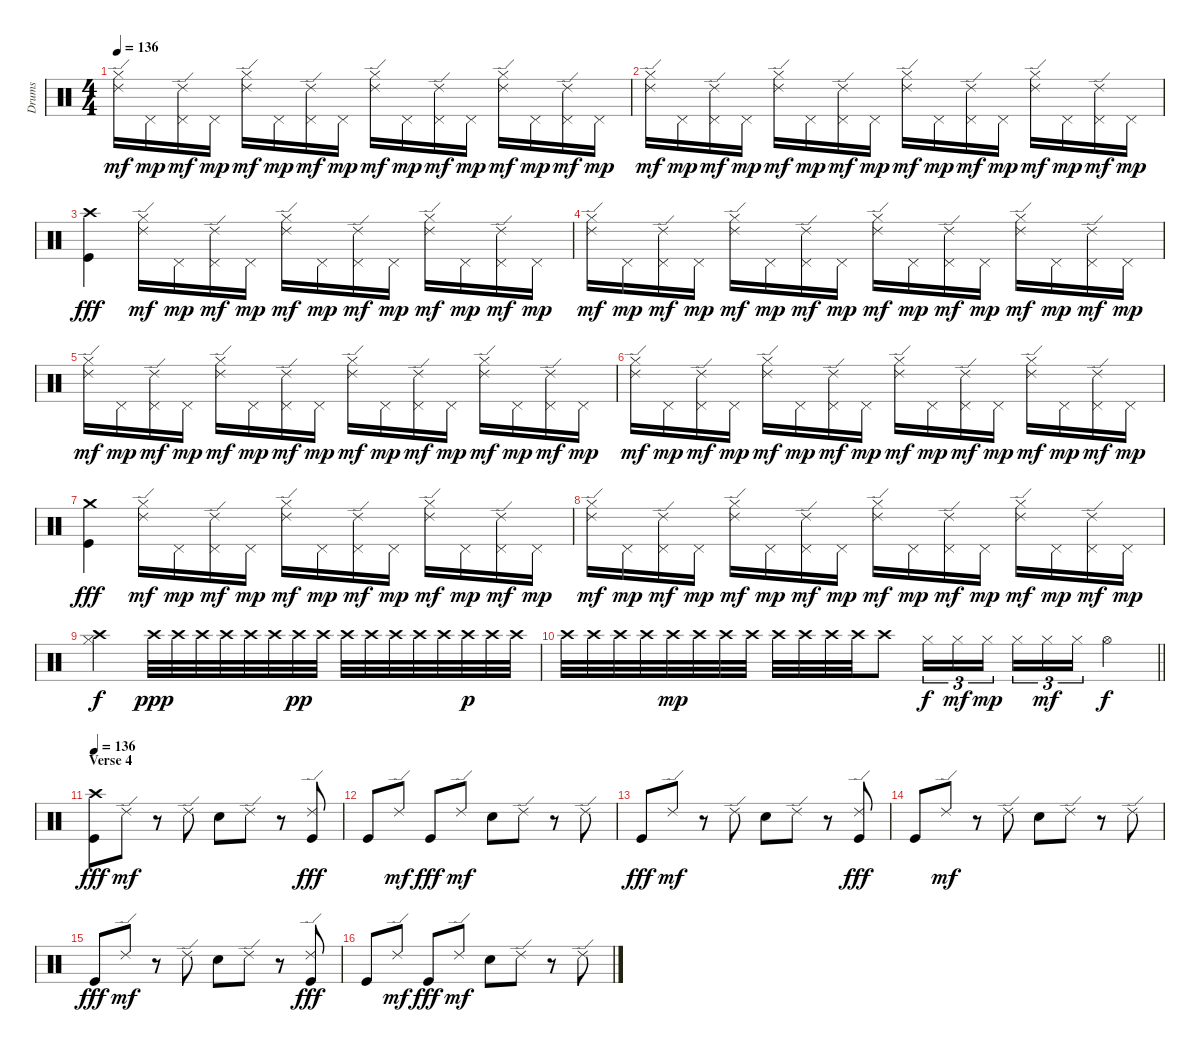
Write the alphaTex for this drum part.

\track ("Drums" "Drums") {instrument percussion}
\staff {score}
\articulation defaults
\ts (4 4)
\tempo 136
\clef neutral
\ks c
("Ride (edge) 2" "Hi-Hat (closed)").16{dy mf} "Pedal Hi-Hat (hit)".16{dy mp} ("Ride (edge) 2" "Pedal Hi-Hat (hit)").16{dy mf} "Pedal Hi-Hat (hit)".16{dy mp} ("Ride (edge) 2" "Hi-Hat (closed)").16{dy mf} "Pedal Hi-Hat (hit)".16{dy mp} ("Ride (edge) 2" "Pedal Hi-Hat (hit)").16{dy mf} "Pedal Hi-Hat (hit)".16{dy mp} ("Ride (edge) 2" "Hi-Hat (closed)").16{dy mf} "Pedal Hi-Hat (hit)".16{dy mp} ("Ride (edge) 2" "Pedal Hi-Hat (hit)").16{dy mf} "Pedal Hi-Hat (hit)".16{dy mp} ("Ride (edge) 2" "Hi-Hat (closed)").16{dy mf} "Pedal Hi-Hat (hit)".16{dy mp} ("Ride (edge) 2" "Pedal Hi-Hat (hit)").16{dy mf} "Pedal Hi-Hat (hit)".16{dy mp} |
("Ride (edge) 2" "Hi-Hat (closed)").16{dy mf} "Pedal Hi-Hat (hit)".16{dy mp} ("Ride (edge) 2" "Pedal Hi-Hat (hit)").16{dy mf} "Pedal Hi-Hat (hit)".16{dy mp} ("Ride (edge) 2" "Hi-Hat (closed)").16{dy mf} "Pedal Hi-Hat (hit)".16{dy mp} ("Ride (edge) 2" "Pedal Hi-Hat (hit)").16{dy mf} "Pedal Hi-Hat (hit)".16{dy mp} ("Ride (edge) 2" "Hi-Hat (closed)").16{dy mf} "Pedal Hi-Hat (hit)".16{dy mp} ("Ride (edge) 2" "Pedal Hi-Hat (hit)").16{dy mf} "Pedal Hi-Hat (hit)".16{dy mp} ("Ride (edge) 2" "Hi-Hat (closed)").16{dy mf} "Pedal Hi-Hat (hit)".16{dy mp} ("Ride (edge) 2" "Pedal Hi-Hat (hit)").16{dy mf} "Pedal Hi-Hat (hit)".16{dy mp} |
("Crash high (hit)" "Kick (hit)").4{dy fff} ("Ride (edge) 2" "Hi-Hat (closed)").16{dy mf} "Pedal Hi-Hat (hit)".16{dy mp} ("Ride (edge) 2" "Pedal Hi-Hat (hit)").16{dy mf} "Pedal Hi-Hat (hit)".16{dy mp} ("Ride (edge) 2" "Hi-Hat (closed)").16{dy mf} "Pedal Hi-Hat (hit)".16{dy mp} ("Ride (edge) 2" "Pedal Hi-Hat (hit)").16{dy mf} "Pedal Hi-Hat (hit)".16{dy mp} ("Ride (edge) 2" "Hi-Hat (closed)").16{dy mf} "Pedal Hi-Hat (hit)".16{dy mp} ("Ride (edge) 2" "Pedal Hi-Hat (hit)").16{dy mf} "Pedal Hi-Hat (hit)".16{dy mp} |
("Ride (edge) 2" "Hi-Hat (closed)").16{dy mf} "Pedal Hi-Hat (hit)".16{dy mp} ("Ride (edge) 2" "Pedal Hi-Hat (hit)").16{dy mf} "Pedal Hi-Hat (hit)".16{dy mp} ("Ride (edge) 2" "Hi-Hat (closed)").16{dy mf} "Pedal Hi-Hat (hit)".16{dy mp} ("Ride (edge) 2" "Pedal Hi-Hat (hit)").16{dy mf} "Pedal Hi-Hat (hit)".16{dy mp} ("Ride (edge) 2" "Hi-Hat (closed)").16{dy mf} "Pedal Hi-Hat (hit)".16{dy mp} ("Ride (edge) 2" "Pedal Hi-Hat (hit)").16{dy mf} "Pedal Hi-Hat (hit)".16{dy mp} ("Ride (edge) 2" "Hi-Hat (closed)").16{dy mf} "Pedal Hi-Hat (hit)".16{dy mp} ("Ride (edge) 2" "Pedal Hi-Hat (hit)").16{dy mf} "Pedal Hi-Hat (hit)".16{dy mp} |
("Ride (edge) 2" "Hi-Hat (closed)").16{dy mf} "Pedal Hi-Hat (hit)".16{dy mp} ("Ride (edge) 2" "Pedal Hi-Hat (hit)").16{dy mf} "Pedal Hi-Hat (hit)".16{dy mp} ("Ride (edge) 2" "Hi-Hat (closed)").16{dy mf} "Pedal Hi-Hat (hit)".16{dy mp} ("Ride (edge) 2" "Pedal Hi-Hat (hit)").16{dy mf} "Pedal Hi-Hat (hit)".16{dy mp} ("Ride (edge) 2" "Hi-Hat (closed)").16{dy mf} "Pedal Hi-Hat (hit)".16{dy mp} ("Ride (edge) 2" "Pedal Hi-Hat (hit)").16{dy mf} "Pedal Hi-Hat (hit)".16{dy mp} ("Ride (edge) 2" "Hi-Hat (closed)").16{dy mf} "Pedal Hi-Hat (hit)".16{dy mp} ("Ride (edge) 2" "Pedal Hi-Hat (hit)").16{dy mf} "Pedal Hi-Hat (hit)".16{dy mp} |
("Ride (edge) 2" "Hi-Hat (closed)").16{dy mf} "Pedal Hi-Hat (hit)".16{dy mp} ("Ride (edge) 2" "Pedal Hi-Hat (hit)").16{dy mf} "Pedal Hi-Hat (hit)".16{dy mp} ("Ride (edge) 2" "Hi-Hat (closed)").16{dy mf} "Pedal Hi-Hat (hit)".16{dy mp} ("Ride (edge) 2" "Pedal Hi-Hat (hit)").16{dy mf} "Pedal Hi-Hat (hit)".16{dy mp} ("Ride (edge) 2" "Hi-Hat (closed)").16{dy mf} "Pedal Hi-Hat (hit)".16{dy mp} ("Ride (edge) 2" "Pedal Hi-Hat (hit)").16{dy mf} "Pedal Hi-Hat (hit)".16{dy mp} ("Ride (edge) 2" "Hi-Hat (closed)").16{dy mf} "Pedal Hi-Hat (hit)".16{dy mp} ("Ride (edge) 2" "Pedal Hi-Hat (hit)").16{dy mf} "Pedal Hi-Hat (hit)".16{dy mp} |
("Crash medium (hit)" "Kick (hit)").4{dy fff} ("Ride (edge) 2" "Hi-Hat (closed)").16{dy mf} "Pedal Hi-Hat (hit)".16{dy mp} ("Ride (edge) 2" "Pedal Hi-Hat (hit)").16{dy mf} "Pedal Hi-Hat (hit)".16{dy mp} ("Ride (edge) 2" "Hi-Hat (closed)").16{dy mf} "Pedal Hi-Hat (hit)".16{dy mp} ("Ride (edge) 2" "Pedal Hi-Hat (hit)").16{dy mf} "Pedal Hi-Hat (hit)".16{dy mp} ("Ride (edge) 2" "Hi-Hat (closed)").16{dy mf} "Pedal Hi-Hat (hit)".16{dy mp} ("Ride (edge) 2" "Pedal Hi-Hat (hit)").16{dy mf} "Pedal Hi-Hat (hit)".16{dy mp} |
("Ride (edge) 2" "Hi-Hat (closed)").16{dy mf} "Pedal Hi-Hat (hit)".16{dy mp} ("Ride (edge) 2" "Pedal Hi-Hat (hit)").16{dy mf} "Pedal Hi-Hat (hit)".16{dy mp} ("Ride (edge) 2" "Hi-Hat (closed)").16{dy mf} "Pedal Hi-Hat (hit)".16{dy mp} ("Ride (edge) 2" "Pedal Hi-Hat (hit)").16{dy mf} "Pedal Hi-Hat (hit)".16{dy mp} ("Ride (edge) 2" "Hi-Hat (closed)").16{dy mf} "Pedal Hi-Hat (hit)".16{dy mp} ("Ride (edge) 2" "Pedal Hi-Hat (hit)").16{dy mf} "Pedal Hi-Hat (hit)".16{dy mp} ("Ride (edge) 2" "Hi-Hat (closed)").16{dy mf} "Pedal Hi-Hat (hit)".16{dy mp} ("Ride (edge) 2" "Pedal Hi-Hat (hit)").16{dy mf} "Pedal Hi-Hat (hit)".16{dy mp} |
("Crash high (hit)" "Hi-Hat (closed)").2{dy f} "Crash high (hit)".32{dy ppp} "Crash high (hit)".32 "Crash high (hit)".32 "Crash high (hit)".32 "Crash high (hit)".32 "Crash high (hit)".32 "Crash high (hit)".32{dy pp} "Crash high (hit)".32 "Crash high (hit)".32 "Crash high (hit)".32 "Crash high (hit)".32 "Crash high (hit)".32 "Crash high (hit)".32 "Crash high (hit)".32{dy p} "Crash high (hit)".32 "Crash high (hit)".32 |
\barLineRight lightlight "Crash high (hit)".32 "Crash high (hit)".32 "Crash high (hit)".32 "Crash high (hit)".32 "Crash high (hit)".32{dy mp} "Crash high (hit)".32 "Crash high (hit)".32 "Crash high (hit)".32 "Crash high (hit)".32 "Crash high (hit)".32 "Crash high (hit)".32 "Crash high (hit)".32 "Crash high (hit)".8 "Hi-Hat (closed)".16{tu (3 2) dy f} "Hi-Hat (closed)".16{tu (3 2) dy mf} "Hi-Hat (closed)".16{tu (3 2) dy mp beam splitsecondary} "Hi-Hat (closed)".16{tu (3 2)} "Hi-Hat (closed)".16{tu (3 2) dy mf} "Hi-Hat (closed)".16{tu (3 2)} "Hi-Hat (open)".4{dy f}
|
\section ("" "Verse 4")
\tempo 136
("Crash high (hit)" "Kick (hit)").8{dy fff} "Ride (edge) 2".8{dy mf} r.8 "Ride (edge) 2".8 "Electric Snare (hit)".8 "Ride (edge) 2".8 r.8 ("Ride (edge) 2" "Kick (hit)").8{dy fff} |
"Kick (hit)".8 "Ride (edge) 2".8{dy mf} "Kick (hit)".8{dy fff} "Ride (edge) 2".8{dy mf} "Electric Snare (hit)".8 "Ride (edge) 2".8 r.8 "Ride (edge) 2".8 |
"Kick (hit)".8{dy fff} "Ride (edge) 2".8{dy mf} r.8 "Ride (edge) 2".8 "Electric Snare (hit)".8 "Ride (edge) 2".8 r.8 ("Ride (edge) 2" "Kick (hit)").8{dy fff} |
"Kick (hit)".8 "Ride (edge) 2".8{dy mf} r.8 "Ride (edge) 2".8 "Electric Snare (hit)".8 "Ride (edge) 2".8 r.8 "Ride (edge) 2".8 |
"Kick (hit)".8{dy fff} "Ride (edge) 2".8{dy mf} r.8 "Ride (edge) 2".8 "Electric Snare (hit)".8 "Ride (edge) 2".8 r.8 ("Ride (edge) 2" "Kick (hit)").8{dy fff} |
"Kick (hit)".8 "Ride (edge) 2".8{dy mf} "Kick (hit)".8{dy fff} "Ride (edge) 2".8{dy mf} "Electric Snare (hit)".8 "Ride (edge) 2".8 r.8 "Ride (edge) 2".8
